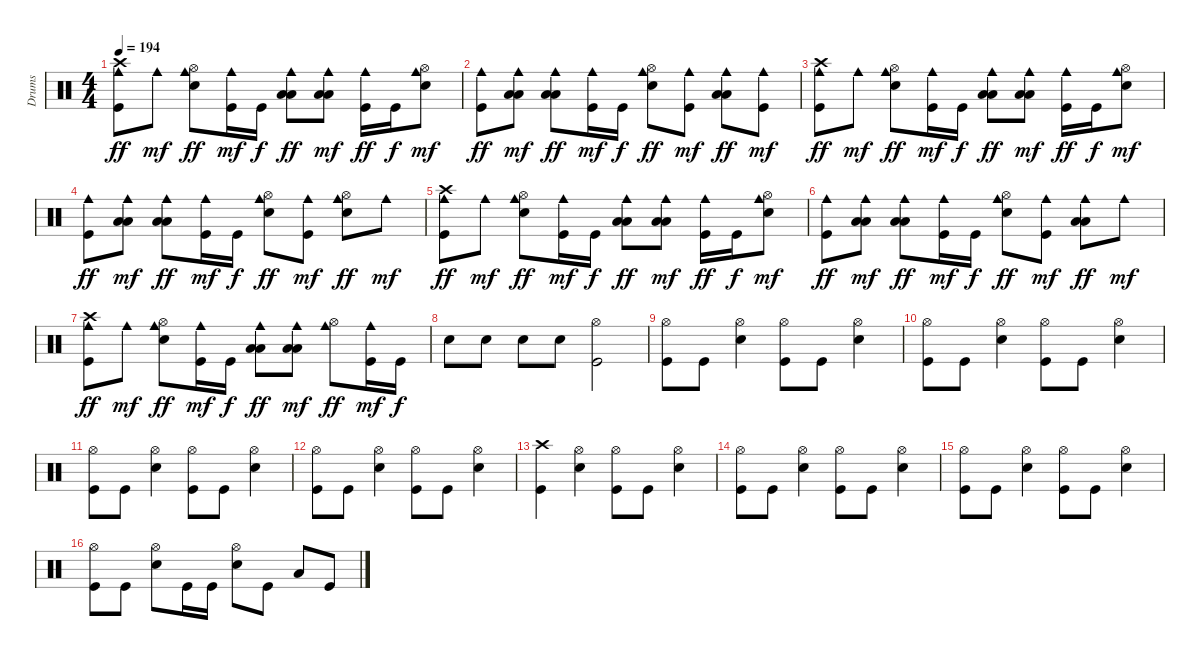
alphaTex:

\track ("Drums" "Drums") {instrument percussion}
\staff {score}
\articulation defaults
\ts (4 4)
\tempo 194
\clef neutral
\ks c
("Cowbell medium (hit)" "Crash high (hit)" "Kick (hit)").8{dy ff} "Cowbell medium (hit)".8{dy mf} ("Cowbell medium (hit)" "Hi-Hat (open)" "Electric Snare (hit)").8{dy ff} ("Cowbell medium (hit)" "Kick (hit)").16{dy mf} "Kick (hit)".16{dy f} ("Cowbell medium (hit)" "Low Floor Tom (hit)" "Low Tom (hit)").8{dy ff} ("Cowbell medium (hit)" "Low Floor Tom (hit)" "Low Tom (hit)").8{dy mf} ("Cowbell medium (hit)" "Kick (hit)").16{dy ff} "Kick (hit)".16{dy f} ("Cowbell medium (hit)" "Hi-Hat (open)" "Electric Snare (hit)").8{dy mf} |
("Cowbell medium (hit)" "Kick (hit)").8{dy ff} ("Cowbell medium (hit)" "Low Floor Tom (hit)" "Low Tom (hit)").8{dy mf} ("Cowbell medium (hit)" "Low Floor Tom (hit)" "Low Tom (hit)").8{dy ff} ("Cowbell medium (hit)" "Kick (hit)").16{dy mf} "Kick (hit)".16{dy f} ("Cowbell medium (hit)" "Hi-Hat (open)" "Electric Snare (hit)").8{dy ff} ("Cowbell medium (hit)" "Kick (hit)").8{dy mf} ("Cowbell medium (hit)" "Low Floor Tom (hit)" "Low Tom (hit)").8{dy ff} ("Cowbell medium (hit)" "Kick (hit)").8{dy mf} |
("Cowbell medium (hit)" "Crash high (hit)" "Kick (hit)").8{dy ff} "Cowbell medium (hit)".8{dy mf} ("Cowbell medium (hit)" "Hi-Hat (open)" "Electric Snare (hit)").8{dy ff} ("Cowbell medium (hit)" "Kick (hit)").16{dy mf} "Kick (hit)".16{dy f} ("Cowbell medium (hit)" "Low Floor Tom (hit)" "Low Tom (hit)").8{dy ff} ("Cowbell medium (hit)" "Low Floor Tom (hit)" "Low Tom (hit)").8{dy mf} ("Cowbell medium (hit)" "Kick (hit)").16{dy ff} "Kick (hit)".16{dy f} ("Cowbell medium (hit)" "Hi-Hat (open)" "Electric Snare (hit)").8{dy mf} |
("Cowbell medium (hit)" "Kick (hit)").8{dy ff} ("Cowbell medium (hit)" "Low Floor Tom (hit)" "Low Tom (hit)").8{dy mf} ("Cowbell medium (hit)" "Low Floor Tom (hit)" "Low Tom (hit)").8{dy ff} ("Cowbell medium (hit)" "Kick (hit)").16{dy mf} "Kick (hit)".16{dy f} ("Cowbell medium (hit)" "Hi-Hat (open)" "Electric Snare (hit)").8{dy ff} ("Cowbell medium (hit)" "Kick (hit)").8{dy mf} ("Cowbell medium (hit)" "Hi-Hat (open)" "Electric Snare (hit)").8{dy ff} "Cowbell medium (hit)".8{dy mf} |
("Cowbell medium (hit)" "Crash high (hit)" "Kick (hit)").8{dy ff} "Cowbell medium (hit)".8{dy mf} ("Cowbell medium (hit)" "Hi-Hat (open)" "Electric Snare (hit)").8{dy ff} ("Cowbell medium (hit)" "Kick (hit)").16{dy mf} "Kick (hit)".16{dy f} ("Cowbell medium (hit)" "Low Floor Tom (hit)" "Low Tom (hit)").8{dy ff} ("Cowbell medium (hit)" "Low Floor Tom (hit)" "Low Tom (hit)").8{dy mf} ("Cowbell medium (hit)" "Kick (hit)").16{dy ff} "Kick (hit)".16{dy f} ("Cowbell medium (hit)" "Hi-Hat (open)" "Electric Snare (hit)").8{dy mf} |
("Cowbell medium (hit)" "Kick (hit)").8{dy ff} ("Cowbell medium (hit)" "Low Floor Tom (hit)" "Low Tom (hit)").8{dy mf} ("Cowbell medium (hit)" "Low Floor Tom (hit)" "Low Tom (hit)").8{dy ff} ("Cowbell medium (hit)" "Kick (hit)").16{dy mf} "Kick (hit)".16{dy f} ("Cowbell medium (hit)" "Hi-Hat (open)" "Electric Snare (hit)").8{dy ff} ("Cowbell medium (hit)" "Kick (hit)").8{dy mf} ("Cowbell medium (hit)" "Low Floor Tom (hit)" "Low Tom (hit)").8{dy ff} "Cowbell medium (hit)".8{dy mf} |
("Cowbell medium (hit)" "Crash high (hit)" "Kick (hit)").8{dy ff} "Cowbell medium (hit)".8{dy mf} ("Cowbell medium (hit)" "Hi-Hat (open)" "Electric Snare (hit)").8{dy ff} ("Cowbell medium (hit)" "Kick (hit)").16{dy mf} "Kick (hit)".16{dy f} ("Cowbell medium (hit)" "Low Floor Tom (hit)" "Low Tom (hit)").8{dy ff} ("Cowbell medium (hit)" "Low Floor Tom (hit)" "Low Tom (hit)").8{dy mf} ("Cowbell medium (hit)" "Hi-Hat (open)").8{dy ff} ("Cowbell medium (hit)" "Kick (hit)").16{dy mf} "Kick (hit)".16{dy f} |
"Electric Snare (hit)".8 "Electric Snare (hit)".8 "Electric Snare (hit)".8 "Electric Snare (hit)".8 ("Hi-Hat (open)" "Kick (hit)").2 |
("Hi-Hat (open)" "Kick (hit)").8 "Kick (hit)".8 ("Hi-Hat (open)" "Electric Snare (hit)").4 ("Hi-Hat (open)" "Kick (hit)").8 "Kick (hit)".8 ("Hi-Hat (open)" "Electric Snare (hit)").4 |
("Hi-Hat (open)" "Kick (hit)").8 "Kick (hit)".8 ("Hi-Hat (open)" "Electric Snare (hit)").4 ("Hi-Hat (open)" "Kick (hit)").8 "Kick (hit)".8 ("Hi-Hat (open)" "Electric Snare (hit)").4 |
("Hi-Hat (open)" "Kick (hit)").8 "Kick (hit)".8 ("Hi-Hat (open)" "Electric Snare (hit)").4 ("Hi-Hat (open)" "Kick (hit)").8 "Kick (hit)".8 ("Hi-Hat (open)" "Electric Snare (hit)").4 |
("Hi-Hat (open)" "Kick (hit)").8 "Kick (hit)".8 ("Hi-Hat (open)" "Electric Snare (hit)").4 ("Hi-Hat (open)" "Kick (hit)").8 "Kick (hit)".8 ("Hi-Hat (open)" "Electric Snare (hit)").4 |
("Crash high (hit)" "Kick (hit)").4 ("Hi-Hat (open)" "Electric Snare (hit)").4 ("Hi-Hat (open)" "Kick (hit)").8 "Kick (hit)".8 ("Hi-Hat (open)" "Electric Snare (hit)").4 |
("Hi-Hat (open)" "Kick (hit)").8 "Kick (hit)".8 ("Hi-Hat (open)" "Electric Snare (hit)").4 ("Hi-Hat (open)" "Kick (hit)").8 "Kick (hit)".8 ("Hi-Hat (open)" "Electric Snare (hit)").4 |
("Hi-Hat (open)" "Kick (hit)").8 "Kick (hit)".8 ("Hi-Hat (open)" "Electric Snare (hit)").4 ("Hi-Hat (open)" "Kick (hit)").8 "Kick (hit)".8 ("Hi-Hat (open)" "Electric Snare (hit)").4 |
("Hi-Hat (open)" "Kick (hit)").8 "Kick (hit)".8 ("Hi-Hat (open)" "Electric Snare (hit)").8 "Kick (hit)".16 "Kick (hit)".16 ("Hi-Hat (open)" "Electric Snare (hit)").8 "Kick (hit)".8 "Low Tom (hit)".8 "Kick (hit)".8
